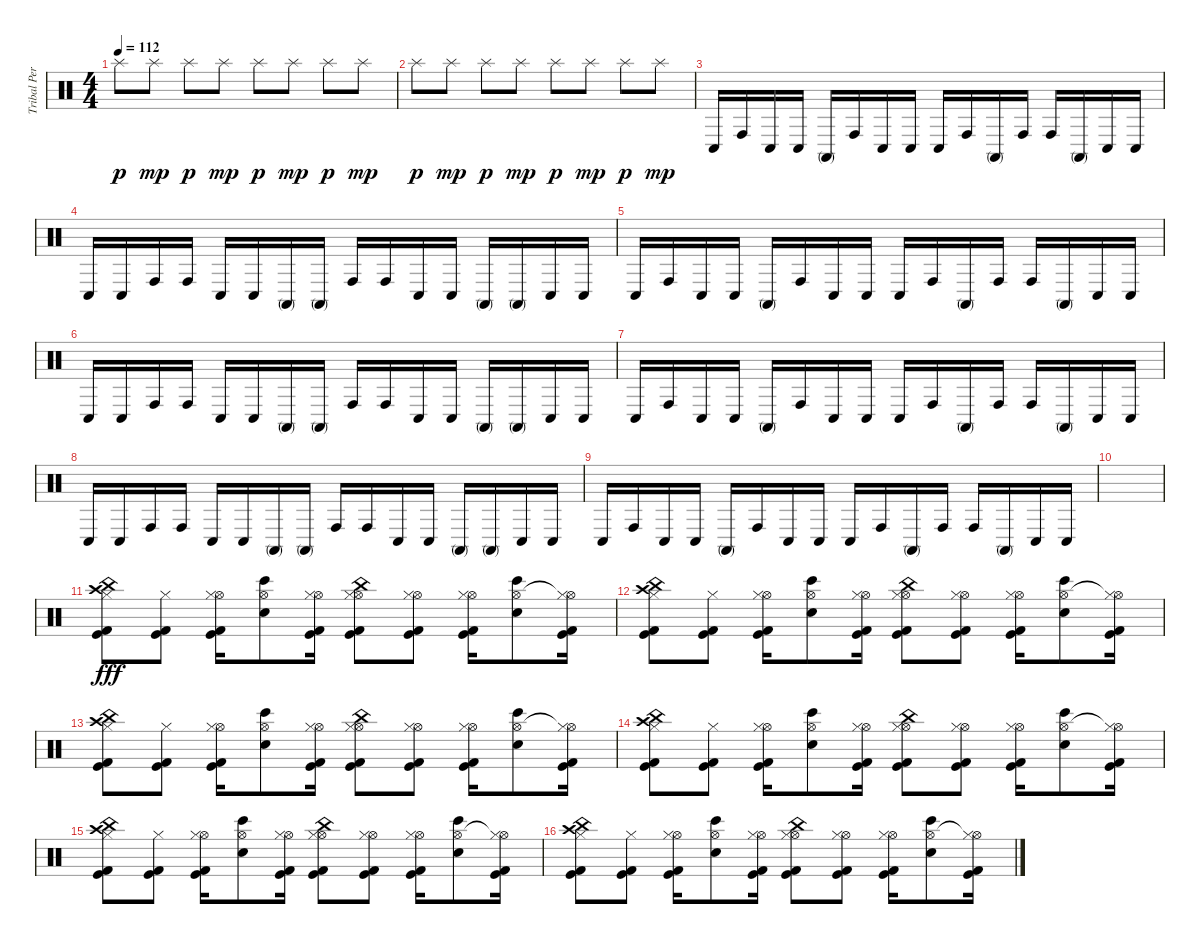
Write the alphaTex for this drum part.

\track ("Tribal Percussion" "Tribal Per") {instrument percussion}
\staff {score}
\articulation defaults
\ts (4 4)
\tempo 112
\clef neutral
\ks c "Splash (hit)".8{dy p} "Splash (hit)".8{dy mp} "Splash (hit)".8{dy p} "Splash (hit)".8{dy mp} "Splash (hit)".8{dy p} "Splash (hit)".8{dy mp} "Splash (hit)".8{dy p} "Splash (hit)".8{dy mp}
|
"Splash (hit)".8{dy p} "Splash (hit)".8{dy mp} "Splash (hit)".8{dy p} "Splash (hit)".8{dy mp} "Splash (hit)".8{dy p} "Splash (hit)".8{dy mp} "Splash (hit)".8{dy p} "Splash (hit)".8{dy mp} |
"Conga low (hit)".16 "Conga high (hit)".16 "Conga low (hit)".16 "Conga low (hit)".16 "Conga high (mute)".16 "Conga high (hit)".16 "Conga low (hit)".16 "Conga low (hit)".16 "Conga low (hit)".16 "Conga high (hit)".16 "Conga high (mute)".16 "Conga high (hit)".16 "Conga high (hit)".16 "Conga high (mute)".16 "Conga low (hit)".16 "Conga low (hit)".16 |
"Conga low (hit)".16 "Conga low (hit)".16 "Conga high (hit)".16 "Conga high (hit)".16 "Conga low (hit)".16 "Conga low (hit)".16 "Conga high (mute)".16 "Conga high (mute)".16 "Conga high (hit)".16 "Conga high (hit)".16 "Conga low (hit)".16 "Conga low (hit)".16 "Conga high (mute)".16 "Conga high (mute)".16 "Conga low (hit)".16 "Conga low (hit)".16 |
"Conga low (hit)".16 "Conga high (hit)".16 "Conga low (hit)".16 "Conga low (hit)".16 "Conga high (mute)".16 "Conga high (hit)".16 "Conga low (hit)".16 "Conga low (hit)".16 "Conga low (hit)".16 "Conga high (hit)".16 "Conga high (mute)".16 "Conga high (hit)".16 "Conga high (hit)".16 "Conga high (mute)".16 "Conga low (hit)".16 "Conga low (hit)".16 |
"Conga low (hit)".16 "Conga low (hit)".16 "Conga high (hit)".16 "Conga high (hit)".16 "Conga low (hit)".16 "Conga low (hit)".16 "Conga high (mute)".16 "Conga high (mute)".16 "Conga high (hit)".16 "Conga high (hit)".16 "Conga low (hit)".16 "Conga low (hit)".16 "Conga high (mute)".16 "Conga high (mute)".16 "Conga low (hit)".16 "Conga low (hit)".16 |
"Conga low (hit)".16 "Conga high (hit)".16 "Conga low (hit)".16 "Conga low (hit)".16 "Conga high (mute)".16 "Conga high (hit)".16 "Conga low (hit)".16 "Conga low (hit)".16 "Conga low (hit)".16 "Conga high (hit)".16 "Conga high (mute)".16 "Conga high (hit)".16 "Conga high (hit)".16 "Conga high (mute)".16 "Conga low (hit)".16 "Conga low (hit)".16 |
"Conga low (hit)".16 "Conga low (hit)".16 "Conga high (hit)".16 "Conga high (hit)".16 "Conga low (hit)".16 "Conga low (hit)".16 "Conga high (mute)".16 "Conga high (mute)".16 "Conga high (hit)".16 "Conga high (hit)".16 "Conga low (hit)".16 "Conga low (hit)".16 "Conga high (mute)".16 "Conga high (mute)".16 "Conga low (hit)".16 "Conga low (hit)".16 |
"Conga low (hit)".16 "Conga high (hit)".16 "Conga low (hit)".16 "Conga low (hit)".16 "Conga high (mute)".16 "Conga high (hit)".16 "Conga low (hit)".16 "Conga low (hit)".16 "Conga low (hit)".16 "Conga high (hit)".16 "Conga high (mute)".16 "Conga high (hit)".16 "Conga high (hit)".16 "Conga high (mute)".16 "Conga low (hit)".16 "Conga low (hit)".16 |
|
("China (hit)" "Crash high (hit)" "Kick (hit)" "Hi-Hat (closed)" "Kick (hit) 2").8{dy fff} ("Kick (hit)" "Hi-Hat (closed)" "Kick (hit) 2").8 ("Hi-Hat (open)" "Kick (hit)" "Hi-Hat (closed)" "Kick (hit) 2").16 ("Hi-Hat (open)" "Bongo High (hit)" "Snare (hit) 2").8 ("Hi-Hat (open)" "Kick (hit)" "Hi-Hat (closed)" "Kick (hit) 2").16 ("China (hit)" "Hi-Hat (open)" "Kick (hit)" "Hi-Hat (closed)" "Kick (hit) 2").8 ("Hi-Hat (open)" "Kick (hit)" "Hi-Hat (closed)" "Kick (hit) 2").8 ("Hi-Hat (open)" "Kick (hit)" "Hi-Hat (closed)" "Kick (hit) 2").16 ("Hi-Hat (open)" "Bongo High (hit)" "Snare (hit) 2").8 ("Hi-Hat (open)"{t} "Kick (hit)" "Hi-Hat (closed)" "Kick (hit) 2").16 |
("China (hit)" "Crash high (hit)" "Kick (hit)" "Hi-Hat (closed)" "Kick (hit) 2").8 ("Kick (hit)" "Hi-Hat (closed)" "Kick (hit) 2").8 ("Hi-Hat (open)" "Kick (hit)" "Hi-Hat (closed)" "Kick (hit) 2").16 ("Hi-Hat (open)" "Bongo High (hit)" "Snare (hit) 2").8 ("Hi-Hat (open)" "Kick (hit)" "Hi-Hat (closed)" "Kick (hit) 2").16 ("China (hit)" "Hi-Hat (open)" "Kick (hit)" "Hi-Hat (closed)" "Kick (hit) 2").8 ("Hi-Hat (open)" "Kick (hit)" "Hi-Hat (closed)" "Kick (hit) 2").8 ("Hi-Hat (open)" "Kick (hit)" "Hi-Hat (closed)" "Kick (hit) 2").16 ("Hi-Hat (open)" "Bongo High (hit)" "Snare (hit) 2").8 ("Hi-Hat (open)"{t} "Kick (hit)" "Hi-Hat (closed)" "Kick (hit) 2").16 |
("China (hit)" "Crash high (hit)" "Kick (hit)" "Hi-Hat (closed)" "Kick (hit) 2").8 ("Kick (hit)" "Hi-Hat (closed)" "Kick (hit) 2").8 ("Hi-Hat (open)" "Kick (hit)" "Hi-Hat (closed)" "Kick (hit) 2").16 ("Hi-Hat (open)" "Bongo High (hit)" "Snare (hit) 2").8 ("Hi-Hat (open)" "Kick (hit)" "Hi-Hat (closed)" "Kick (hit) 2").16 ("China (hit)" "Hi-Hat (open)" "Kick (hit)" "Hi-Hat (closed)" "Kick (hit) 2").8 ("Hi-Hat (open)" "Kick (hit)" "Hi-Hat (closed)" "Kick (hit) 2").8 ("Hi-Hat (open)" "Kick (hit)" "Hi-Hat (closed)" "Kick (hit) 2").16 ("Hi-Hat (open)" "Bongo High (hit)" "Snare (hit) 2").8 ("Hi-Hat (open)"{t} "Kick (hit)" "Hi-Hat (closed)" "Kick (hit) 2").16 |
("China (hit)" "Crash high (hit)" "Kick (hit)" "Hi-Hat (closed)" "Kick (hit) 2").8 ("Kick (hit)" "Hi-Hat (closed)" "Kick (hit) 2").8 ("Hi-Hat (open)" "Kick (hit)" "Hi-Hat (closed)" "Kick (hit) 2").16 ("Hi-Hat (open)" "Bongo High (hit)" "Snare (hit) 2").8 ("Hi-Hat (open)" "Kick (hit)" "Hi-Hat (closed)" "Kick (hit) 2").16 ("China (hit)" "Hi-Hat (open)" "Kick (hit)" "Hi-Hat (closed)" "Kick (hit) 2").8 ("Hi-Hat (open)" "Kick (hit)" "Hi-Hat (closed)" "Kick (hit) 2").8 ("Hi-Hat (open)" "Kick (hit)" "Hi-Hat (closed)" "Kick (hit) 2").16 ("Hi-Hat (open)" "Bongo High (hit)" "Snare (hit) 2").8 ("Hi-Hat (open)"{t} "Kick (hit)" "Hi-Hat (closed)" "Kick (hit) 2").16 |
("China (hit)" "Crash high (hit)" "Kick (hit)" "Hi-Hat (closed)" "Kick (hit) 2").8 ("Kick (hit)" "Hi-Hat (closed)" "Kick (hit) 2").8 ("Hi-Hat (open)" "Kick (hit)" "Hi-Hat (closed)" "Kick (hit) 2").16 ("Hi-Hat (open)" "Bongo High (hit)" "Snare (hit) 2").8 ("Hi-Hat (open)" "Kick (hit)" "Hi-Hat (closed)" "Kick (hit) 2").16 ("China (hit)" "Hi-Hat (open)" "Kick (hit)" "Hi-Hat (closed)" "Kick (hit) 2").8 ("Hi-Hat (open)" "Kick (hit)" "Hi-Hat (closed)" "Kick (hit) 2").8 ("Hi-Hat (open)" "Kick (hit)" "Hi-Hat (closed)" "Kick (hit) 2").16 ("Hi-Hat (open)" "Bongo High (hit)" "Snare (hit) 2").8 ("Hi-Hat (open)"{t} "Kick (hit)" "Hi-Hat (closed)" "Kick (hit) 2").16 |
("China (hit)" "Crash high (hit)" "Kick (hit)" "Hi-Hat (closed)" "Kick (hit) 2").8 ("Kick (hit)" "Hi-Hat (closed)" "Kick (hit) 2").8 ("Hi-Hat (open)" "Kick (hit)" "Hi-Hat (closed)" "Kick (hit) 2").16 ("Hi-Hat (open)" "Bongo High (hit)" "Snare (hit) 2").8 ("Hi-Hat (open)" "Kick (hit)" "Hi-Hat (closed)" "Kick (hit) 2").16 ("China (hit)" "Hi-Hat (open)" "Kick (hit)" "Hi-Hat (closed)" "Kick (hit) 2").8 ("Hi-Hat (open)" "Kick (hit)" "Hi-Hat (closed)" "Kick (hit) 2").8 ("Hi-Hat (open)" "Kick (hit)" "Hi-Hat (closed)" "Kick (hit) 2").16 ("Hi-Hat (open)" "Bongo High (hit)" "Snare (hit) 2").8 ("Hi-Hat (open)"{t} "Kick (hit)" "Hi-Hat (closed)" "Kick (hit) 2").16
